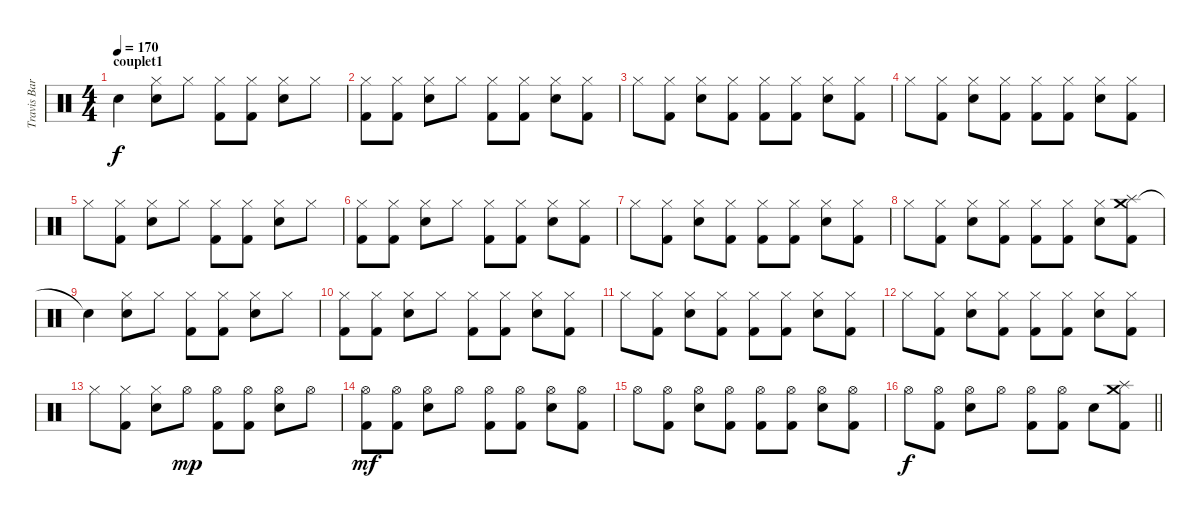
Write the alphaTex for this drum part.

\track ("Travis Barker" "Travis Bar") {instrument percussion}
\staff {score}
\articulation defaults
\ts (4 4)
\section ("" "couplet1")
\tempo 170
\clef neutral
\ks c "Snare (hit)"{t}.4{dy f}
("Hi-Hat (closed)" "Electric Snare (hit)").8 "Hi-Hat (closed)".8 ("Hi-Hat (closed)" "Kick (hit) 2").8 ("Hi-Hat (closed)" "Kick (hit) 2").8 ("Hi-Hat (closed)" "Electric Snare (hit)").8 "Hi-Hat (closed)".8 |
("Hi-Hat (closed)" "Kick (hit) 2").8 ("Hi-Hat (closed)" "Kick (hit) 2").8 ("Hi-Hat (closed)" "Electric Snare (hit)").8 "Hi-Hat (closed)".8 ("Hi-Hat (closed)" "Kick (hit) 2").8 ("Hi-Hat (closed)" "Kick (hit) 2").8 ("Hi-Hat (closed)" "Electric Snare (hit)").8 ("Hi-Hat (closed)" "Kick (hit) 2").8 |
"Hi-Hat (closed)".8 ("Hi-Hat (closed)" "Kick (hit) 2").8 ("Hi-Hat (closed)" "Electric Snare (hit)").8 ("Hi-Hat (closed)" "Kick (hit) 2").8 ("Hi-Hat (closed)" "Kick (hit) 2").8 ("Hi-Hat (closed)" "Kick (hit) 2").8 ("Hi-Hat (closed)" "Electric Snare (hit)").8 ("Hi-Hat (closed)" "Kick (hit) 2").8 |
"Hi-Hat (closed)".8 ("Hi-Hat (closed)" "Kick (hit) 2").8 ("Hi-Hat (closed)" "Electric Snare (hit)").8 ("Hi-Hat (closed)" "Kick (hit) 2").8 ("Hi-Hat (closed)" "Kick (hit) 2").8 ("Hi-Hat (closed)" "Kick (hit) 2").8 ("Hi-Hat (closed)" "Electric Snare (hit)").8 ("Hi-Hat (closed)" "Kick (hit) 2").8 |
"Hi-Hat (closed)".8 ("Hi-Hat (closed)" "Kick (hit) 2").8 ("Hi-Hat (closed)" "Electric Snare (hit)").8 "Hi-Hat (closed)".8 ("Hi-Hat (closed)" "Kick (hit) 2").8 ("Hi-Hat (closed)" "Kick (hit) 2").8 ("Hi-Hat (closed)" "Electric Snare (hit)").8 "Hi-Hat (closed)".8 |
("Hi-Hat (closed)" "Kick (hit) 2").8 ("Hi-Hat (closed)" "Kick (hit) 2").8 ("Hi-Hat (closed)" "Electric Snare (hit)").8 "Hi-Hat (closed)".8 ("Hi-Hat (closed)" "Kick (hit) 2").8 ("Hi-Hat (closed)" "Kick (hit) 2").8 ("Hi-Hat (closed)" "Electric Snare (hit)").8 ("Hi-Hat (closed)" "Kick (hit) 2").8 |
"Hi-Hat (closed)".8 ("Hi-Hat (closed)" "Kick (hit) 2").8 ("Hi-Hat (closed)" "Electric Snare (hit)").8 ("Hi-Hat (closed)" "Kick (hit) 2").8 ("Hi-Hat (closed)" "Kick (hit) 2").8 ("Hi-Hat (closed)" "Kick (hit) 2").8 ("Hi-Hat (closed)" "Electric Snare (hit)").8 ("Hi-Hat (closed)" "Kick (hit) 2").8 |
"Hi-Hat (closed)".8 ("Hi-Hat (closed)" "Kick (hit) 2").8 ("Hi-Hat (closed)" "Electric Snare (hit)").8 ("Hi-Hat (closed)" "Kick (hit) 2").8 ("Hi-Hat (closed)" "Kick (hit) 2").8 ("Hi-Hat (closed)" "Kick (hit) 2").8 ("Hi-Hat (closed)" "Electric Snare (hit)").8 ("Crash medium (hit)" "Kick (hit) 2" "Splash (hit)").8 |
"Snare (hit)"{t}.4 ("Hi-Hat (closed)" "Electric Snare (hit)").8 "Hi-Hat (closed)".8 ("Hi-Hat (closed)" "Kick (hit) 2").8 ("Hi-Hat (closed)" "Kick (hit) 2").8 ("Hi-Hat (closed)" "Electric Snare (hit)").8 "Hi-Hat (closed)".8 |
("Hi-Hat (closed)" "Kick (hit) 2").8 ("Hi-Hat (closed)" "Kick (hit) 2").8 ("Hi-Hat (closed)" "Electric Snare (hit)").8 "Hi-Hat (closed)".8 ("Hi-Hat (closed)" "Kick (hit) 2").8 ("Hi-Hat (closed)" "Kick (hit) 2").8 ("Hi-Hat (closed)" "Electric Snare (hit)").8 ("Hi-Hat (closed)" "Kick (hit) 2").8 |
"Hi-Hat (closed)".8 ("Hi-Hat (closed)" "Kick (hit) 2").8 ("Hi-Hat (closed)" "Electric Snare (hit)").8 ("Hi-Hat (closed)" "Kick (hit) 2").8 ("Hi-Hat (closed)" "Kick (hit) 2").8 ("Hi-Hat (closed)" "Kick (hit) 2").8 ("Hi-Hat (closed)" "Electric Snare (hit)").8 ("Hi-Hat (closed)" "Kick (hit) 2").8 |
"Hi-Hat (closed)".8 ("Hi-Hat (closed)" "Kick (hit) 2").8 ("Hi-Hat (closed)" "Electric Snare (hit)").8 ("Hi-Hat (closed)" "Kick (hit) 2").8 ("Hi-Hat (closed)" "Kick (hit) 2").8 ("Hi-Hat (closed)" "Kick (hit) 2").8 ("Hi-Hat (closed)" "Electric Snare (hit)").8 ("Hi-Hat (closed)" "Kick (hit) 2").8 |
"Hi-Hat (closed)".8 ("Hi-Hat (closed)" "Kick (hit) 2").8 ("Hi-Hat (closed)" "Electric Snare (hit)").8 "Hi-Hat (open)".8{dy mp} ("Hi-Hat (open)" "Kick (hit) 2").8 ("Hi-Hat (open)" "Kick (hit) 2").8 ("Hi-Hat (open)" "Electric Snare (hit)").8 "Hi-Hat (open)".8 |
("Hi-Hat (open)" "Kick (hit) 2").8{dy mf} ("Hi-Hat (open)" "Kick (hit) 2").8 ("Hi-Hat (open)" "Electric Snare (hit)").8 "Hi-Hat (open)".8 ("Hi-Hat (open)" "Kick (hit) 2").8 ("Hi-Hat (open)" "Kick (hit) 2").8 ("Hi-Hat (open)" "Electric Snare (hit)").8 ("Hi-Hat (open)" "Kick (hit) 2").8 |
"Hi-Hat (open)".8 ("Hi-Hat (open)" "Kick (hit) 2").8 ("Hi-Hat (open)" "Electric Snare (hit)").8 ("Hi-Hat (open)" "Kick (hit) 2").8 ("Hi-Hat (open)" "Kick (hit) 2").8 ("Hi-Hat (open)" "Kick (hit) 2").8 ("Hi-Hat (open)" "Electric Snare (hit)").8 ("Hi-Hat (open)" "Kick (hit) 2").8 |
\barLineRight lightlight "Hi-Hat (open)".8{dy f}
("Hi-Hat (open)" "Kick (hit) 2").8 ("Hi-Hat (open)" "Electric Snare (hit)").8 "Hi-Hat (open)".8 ("Hi-Hat (open)" "Kick (hit) 2").8 ("Hi-Hat (open)" "Kick (hit) 2").8 "Electric Snare (hit)".8 ("Crash medium (hit)" "Kick (hit) 2" "Splash (hit)").8
